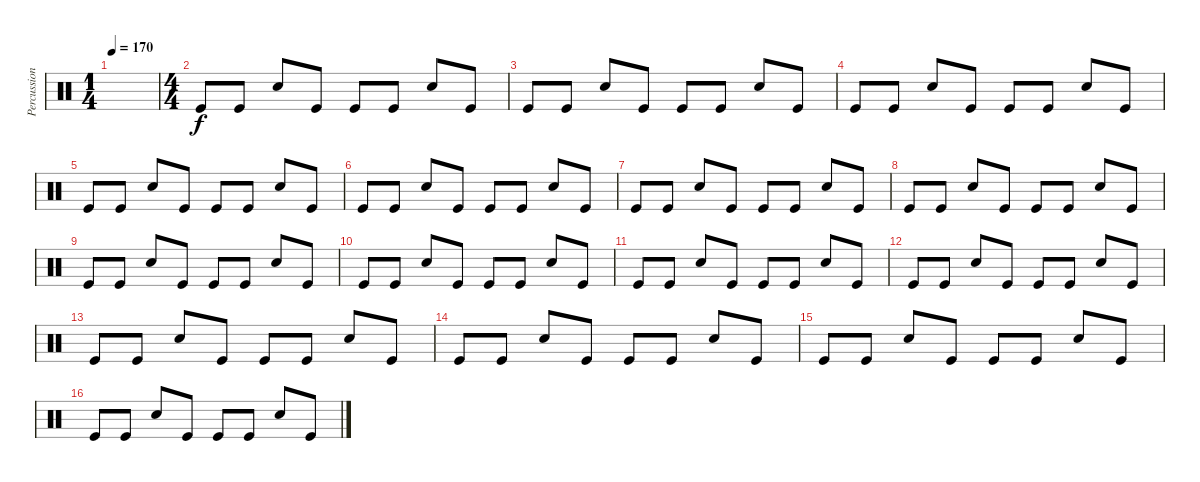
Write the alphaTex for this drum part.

\track ("Percussion" "Percussion") {instrument percussion}
\staff {score}
\articulation defaults
\ts (1 4)
\tempo 170
\clef neutral
\ks c
|
\ts (4 4)
"Kick (hit)".8 "Kick (hit)".8 "Snare (hit) 2".8 "Kick (hit)".8 "Kick (hit)".8 "Kick (hit)".8 "Snare (hit) 2".8 "Kick (hit)".8 |
"Kick (hit)".8 "Kick (hit)".8 "Snare (hit) 2".8 "Kick (hit)".8 "Kick (hit)".8 "Kick (hit)".8 "Snare (hit) 2".8 "Kick (hit)".8 |
"Kick (hit)".8 "Kick (hit)".8 "Snare (hit) 2".8 "Kick (hit)".8 "Kick (hit)".8 "Kick (hit)".8 "Snare (hit) 2".8 "Kick (hit)".8 |
"Kick (hit)".8 "Kick (hit)".8 "Snare (hit) 2".8 "Kick (hit)".8 "Kick (hit)".8 "Kick (hit)".8 "Snare (hit) 2".8 "Kick (hit)".8 |
"Kick (hit)".8 "Kick (hit)".8 "Snare (hit) 2".8 "Kick (hit)".8 "Kick (hit)".8 "Kick (hit)".8 "Snare (hit) 2".8 "Kick (hit)".8 |
"Kick (hit)".8 "Kick (hit)".8 "Snare (hit) 2".8 "Kick (hit)".8 "Kick (hit)".8 "Kick (hit)".8 "Snare (hit) 2".8 "Kick (hit)".8 |
"Kick (hit)".8 "Kick (hit)".8 "Snare (hit) 2".8 "Kick (hit)".8 "Kick (hit)".8 "Kick (hit)".8 "Snare (hit) 2".8 "Kick (hit)".8 |
"Kick (hit)".8 "Kick (hit)".8 "Snare (hit) 2".8 "Kick (hit)".8 "Kick (hit)".8 "Kick (hit)".8 "Snare (hit) 2".8 "Kick (hit)".8 |
"Kick (hit)".8 "Kick (hit)".8 "Snare (hit) 2".8 "Kick (hit)".8 "Kick (hit)".8 "Kick (hit)".8 "Snare (hit) 2".8 "Kick (hit)".8 |
"Kick (hit)".8 "Kick (hit)".8 "Snare (hit) 2".8 "Kick (hit)".8 "Kick (hit)".8 "Kick (hit)".8 "Snare (hit) 2".8 "Kick (hit)".8 |
"Kick (hit)".8 "Kick (hit)".8 "Snare (hit) 2".8 "Kick (hit)".8 "Kick (hit)".8 "Kick (hit)".8 "Snare (hit) 2".8 "Kick (hit)".8 |
"Kick (hit)".8 "Kick (hit)".8 "Snare (hit) 2".8 "Kick (hit)".8 "Kick (hit)".8 "Kick (hit)".8 "Snare (hit) 2".8 "Kick (hit)".8 |
"Kick (hit)".8 "Kick (hit)".8 "Snare (hit) 2".8 "Kick (hit)".8 "Kick (hit)".8 "Kick (hit)".8 "Snare (hit) 2".8 "Kick (hit)".8 |
"Kick (hit)".8 "Kick (hit)".8 "Snare (hit) 2".8 "Kick (hit)".8 "Kick (hit)".8 "Kick (hit)".8 "Snare (hit) 2".8 "Kick (hit)".8 |
"Kick (hit)".8 "Kick (hit)".8 "Snare (hit) 2".8 "Kick (hit)".8 "Kick (hit)".8 "Kick (hit)".8 "Snare (hit) 2".8 "Kick (hit)".8
